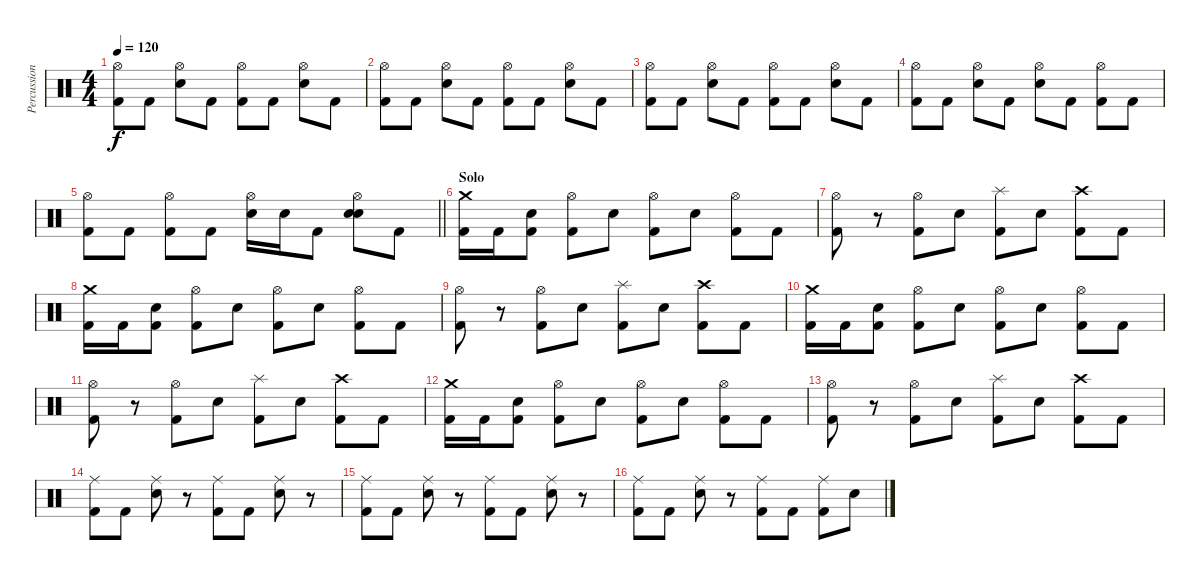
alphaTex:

\track ("Percussion" "Percussion") {instrument percussion}
\staff {score}
\articulation defaults
\ts (4 4)
\tempo 120
\clef neutral
\ks c
("Hi-Hat (open)" "Kick (hit) 2").8{dy f} "Kick (hit) 2".8 ("Hi-Hat (open)" "Snare (hit) 2").8 "Kick (hit) 2".8 ("Hi-Hat (open)" "Kick (hit) 2").8 "Kick (hit) 2".8 ("Hi-Hat (open)" "Snare (hit) 2").8 "Kick (hit) 2".8 |
("Hi-Hat (open)" "Kick (hit) 2").8 "Kick (hit) 2".8 ("Hi-Hat (open)" "Snare (hit) 2").8 "Kick (hit) 2".8 ("Hi-Hat (open)" "Kick (hit) 2").8 "Kick (hit) 2".8 ("Hi-Hat (open)" "Snare (hit) 2").8 "Kick (hit) 2".8 |
("Hi-Hat (open)" "Kick (hit) 2").8 "Kick (hit) 2".8 ("Hi-Hat (open)" "Snare (hit) 2").8 "Kick (hit) 2".8 ("Hi-Hat (open)" "Kick (hit) 2").8 "Kick (hit) 2".8 ("Hi-Hat (open)" "Snare (hit) 2").8 "Kick (hit) 2".8 |
("Hi-Hat (open)" "Kick (hit) 2").8 "Kick (hit) 2".8 ("Hi-Hat (open)" "Snare (hit) 2").8 "Kick (hit) 2".8 ("Hi-Hat (open)" "Snare (hit) 2").8 "Kick (hit) 2".8 ("Hi-Hat (open)" "Kick (hit) 2").8 "Kick (hit) 2".8 |
\barLineRight lightlight
("Hi-Hat (open)" "Kick (hit) 2").8 "Kick (hit) 2".8 ("Hi-Hat (open)" "Kick (hit) 2").8 "Kick (hit) 2".8 ("Hi-Hat (open)" "Snare (hit) 2").16 "Snare (hit) 2".16 "Kick (hit) 2".8 ("Hi-Hat (open)" "Snare (hit) 2" "Snare (hit) 2").8 "Kick (hit) 2".8 |
\section ("" "Solo")
("Crash medium (hit)" "Kick (hit) 2").16 "Kick (hit) 2".16 ("Snare (hit) 2" "Kick (hit) 2").8 ("Hi-Hat (open)" "Kick (hit) 2").8 "Snare (hit) 2".8 ("Hi-Hat (open)" "Kick (hit) 2").8 "Snare (hit) 2".8 ("Hi-Hat (open)" "Kick (hit) 2").8 "Kick (hit) 2".8 |
("Hi-Hat (open)" "Kick (hit) 2").8 r.8 ("Hi-Hat (open)" "Kick (hit) 2").8 "Snare (hit) 2".8 ("Splash (hit)" "Kick (hit) 2").8 "Snare (hit) 2".8 ("Crash high (hit)" "Kick (hit) 2").8 "Kick (hit) 2".8 |
("Crash medium (hit)" "Kick (hit) 2").16 "Kick (hit) 2".16 ("Snare (hit) 2" "Kick (hit) 2").8 ("Hi-Hat (open)" "Kick (hit) 2").8 "Snare (hit) 2".8 ("Hi-Hat (open)" "Kick (hit) 2").8 "Snare (hit) 2".8 ("Hi-Hat (open)" "Kick (hit) 2").8 "Kick (hit) 2".8 |
("Hi-Hat (open)" "Kick (hit) 2").8 r.8 ("Hi-Hat (open)" "Kick (hit) 2").8 "Snare (hit) 2".8 ("Splash (hit)" "Kick (hit) 2").8 "Snare (hit) 2".8 ("Crash high (hit)" "Kick (hit) 2").8 "Kick (hit) 2".8 |
("Crash medium (hit)" "Kick (hit) 2").16 "Kick (hit) 2".16 ("Snare (hit) 2" "Kick (hit) 2").8 ("Hi-Hat (open)" "Kick (hit) 2").8 "Snare (hit) 2".8 ("Hi-Hat (open)" "Kick (hit) 2").8 "Snare (hit) 2".8 ("Hi-Hat (open)" "Kick (hit) 2").8 "Kick (hit) 2".8 |
("Hi-Hat (open)" "Kick (hit) 2").8 r.8 ("Hi-Hat (open)" "Kick (hit) 2").8 "Snare (hit) 2".8 ("Splash (hit)" "Kick (hit) 2").8 "Snare (hit) 2".8 ("Crash high (hit)" "Kick (hit) 2").8 "Kick (hit) 2".8 |
("Crash medium (hit)" "Kick (hit) 2").16 "Kick (hit) 2".16 ("Snare (hit) 2" "Kick (hit) 2").8 ("Hi-Hat (open)" "Kick (hit) 2").8 "Snare (hit) 2".8 ("Hi-Hat (open)" "Kick (hit) 2").8 "Snare (hit) 2".8 ("Hi-Hat (open)" "Kick (hit) 2").8 "Kick (hit) 2".8 |
("Hi-Hat (open)" "Kick (hit) 2").8 r.8 ("Hi-Hat (open)" "Kick (hit) 2").8 "Snare (hit) 2".8 ("Splash (hit)" "Kick (hit) 2").8 "Snare (hit) 2".8 ("Crash high (hit)" "Kick (hit) 2").8 "Kick (hit) 2".8 |
("Ride (middle)" "Kick (hit) 2").8 "Kick (hit) 2".8 ("Ride (middle)" "Snare (hit) 2").8 r.8 ("Ride (middle)" "Kick (hit) 2").8 "Kick (hit) 2".8 ("Ride (middle)" "Snare (hit) 2").8 r.8 |
("Ride (middle)" "Kick (hit) 2").8 "Kick (hit) 2".8 ("Ride (middle)" "Snare (hit) 2").8 r.8 ("Ride (middle)" "Kick (hit) 2").8 "Kick (hit) 2".8 ("Ride (middle)" "Snare (hit) 2").8 r.8 |
("Ride (middle)" "Kick (hit) 2").8 "Kick (hit) 2".8 ("Ride (middle)" "Snare (hit) 2").8 r.8 ("Ride (middle)" "Kick (hit) 2").8 "Kick (hit) 2".8 ("Ride (middle)" "Kick (hit) 2").8 "Snare (hit) 2".8
